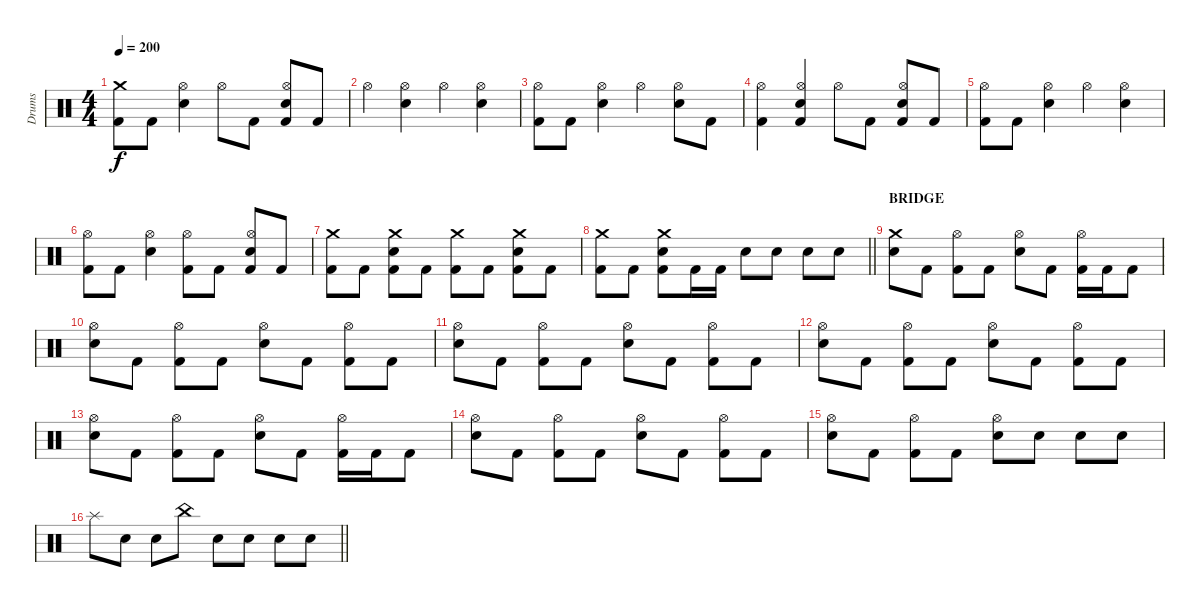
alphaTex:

\track ("Drums" "Drums") {instrument percussion}
\staff {score}
\articulation defaults
\ts (4 4)
\tempo 200
\clef neutral
\ks c
("Crash medium (hit)" "Kick (hit) 2").8{dy f} "Kick (hit) 2".8 ("Hi-Hat (open)" "Electric Snare (hit)").4 "Hi-Hat (open)".8 "Kick (hit) 2".8 ("Hi-Hat (open)" "Electric Snare (hit)" "Kick (hit) 2").8 "Kick (hit) 2".8 |
"Hi-Hat (open)".4 ("Hi-Hat (open)" "Electric Snare (hit)").4 "Hi-Hat (open)".4 ("Hi-Hat (open)" "Electric Snare (hit)").4 |
("Hi-Hat (open)" "Kick (hit) 2").8 "Kick (hit) 2".8 ("Hi-Hat (open)" "Electric Snare (hit)").4 "Hi-Hat (open)".4 ("Hi-Hat (open)" "Electric Snare (hit)").8 "Kick (hit) 2".8 |
("Hi-Hat (open)" "Kick (hit) 2").4 ("Hi-Hat (open)" "Electric Snare (hit)" "Kick (hit) 2").4 "Hi-Hat (open)".8 "Kick (hit) 2".8 ("Hi-Hat (open)" "Electric Snare (hit)" "Kick (hit) 2").8 "Kick (hit) 2".8 |
("Hi-Hat (open)" "Kick (hit) 2").8 "Kick (hit) 2".8 ("Hi-Hat (open)" "Electric Snare (hit)").4 "Hi-Hat (open)".4 ("Hi-Hat (open)" "Electric Snare (hit)").4 |
("Hi-Hat (open)" "Kick (hit) 2").8 "Kick (hit) 2".8 ("Hi-Hat (open)" "Electric Snare (hit)").4 ("Hi-Hat (open)" "Kick (hit) 2").8 "Kick (hit) 2".8 ("Hi-Hat (open)" "Electric Snare (hit)" "Kick (hit) 2").8 "Kick (hit) 2".8 |
("Crash medium (hit)" "Kick (hit) 2").8 "Kick (hit) 2".8 ("Crash medium (hit)" "Electric Snare (hit)" "Kick (hit) 2").8 "Kick (hit) 2".8 ("Crash medium (hit)" "Kick (hit) 2").8 "Kick (hit) 2".8 ("Crash medium (hit)" "Electric Snare (hit)" "Kick (hit) 2").8 "Kick (hit) 2".8 |
\barLineRight lightlight
("Crash medium (hit)" "Kick (hit) 2").8 "Kick (hit) 2".8 ("Crash medium (hit)" "Electric Snare (hit)" "Kick (hit) 2").8 "Kick (hit) 2".16 "Kick (hit) 2".16 "Electric Snare (hit)".8 "Electric Snare (hit)".8 "Electric Snare (hit)".8 "Electric Snare (hit)".8 |
\section ("" "BRIDGE")
("Crash medium (hit)" "Electric Snare (hit)").8 "Kick (hit) 2".8 ("Hi-Hat (open)" "Kick (hit) 2").8 "Kick (hit) 2".8 ("Hi-Hat (open)" "Electric Snare (hit)").8 "Kick (hit) 2".8 ("Hi-Hat (open)" "Kick (hit) 2").16 "Kick (hit) 2".16 "Kick (hit) 2".8 |
("Hi-Hat (open)" "Electric Snare (hit)").8 "Kick (hit) 2".8 ("Hi-Hat (open)" "Kick (hit) 2").8 "Kick (hit) 2".8 ("Hi-Hat (open)" "Electric Snare (hit)").8 "Kick (hit) 2".8 ("Hi-Hat (open)" "Kick (hit) 2").8 "Kick (hit) 2".8 |
("Hi-Hat (open)" "Electric Snare (hit)").8 "Kick (hit) 2".8 ("Hi-Hat (open)" "Kick (hit) 2").8 "Kick (hit) 2".8 ("Hi-Hat (open)" "Electric Snare (hit)").8 "Kick (hit) 2".8 ("Hi-Hat (open)" "Kick (hit) 2").8 "Kick (hit) 2".8 |
("Hi-Hat (open)" "Electric Snare (hit)").8 "Kick (hit) 2".8 ("Hi-Hat (open)" "Kick (hit) 2").8 "Kick (hit) 2".8 ("Hi-Hat (open)" "Electric Snare (hit)").8 "Kick (hit) 2".8 ("Hi-Hat (open)" "Kick (hit) 2").8 "Kick (hit) 2".8 |
("Hi-Hat (open)" "Electric Snare (hit)").8 "Kick (hit) 2".8 ("Hi-Hat (open)" "Kick (hit) 2").8 "Kick (hit) 2".8 ("Hi-Hat (open)" "Electric Snare (hit)").8 "Kick (hit) 2".8 ("Hi-Hat (open)" "Kick (hit) 2").16 "Kick (hit) 2".16 "Kick (hit) 2".8 |
("Hi-Hat (open)" "Electric Snare (hit)").8 "Kick (hit) 2".8 ("Hi-Hat (open)" "Kick (hit) 2").8 "Kick (hit) 2".8 ("Hi-Hat (open)" "Electric Snare (hit)").8 "Kick (hit) 2".8 ("Hi-Hat (open)" "Kick (hit) 2").8 "Kick (hit) 2".8 |
("Hi-Hat (open)" "Electric Snare (hit)").8 "Kick (hit) 2".8 ("Hi-Hat (open)" "Kick (hit) 2").8 "Kick (hit) 2".8 ("Hi-Hat (open)" "Electric Snare (hit)").8 "Electric Snare (hit)".8 "Electric Snare (hit)".8 "Electric Snare (hit)".8 |
\barLineRight lightlight "Splash (hit)".8 "Electric Snare (hit)".8 "Electric Snare (hit)".8 "China (hit)".8 "Electric Snare (hit)".8 "Electric Snare (hit)".8 "Electric Snare (hit)".8 "Electric Snare (hit)".8
